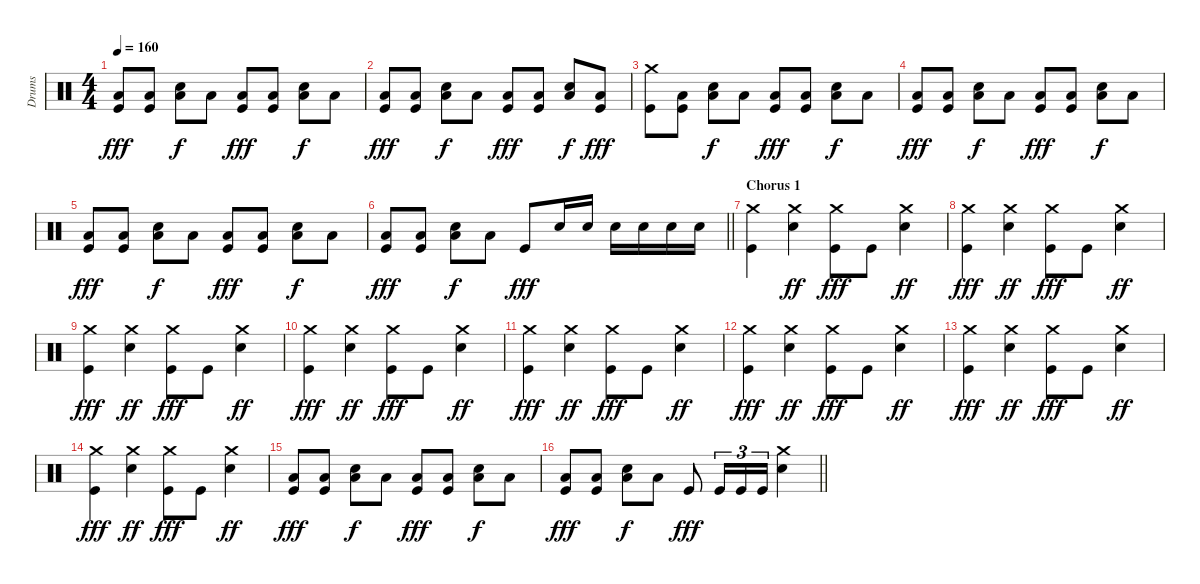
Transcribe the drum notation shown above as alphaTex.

\track ("Drums" "Drums") {instrument percussion}
\staff {score}
\articulation defaults
\ts (4 4)
\tempo 160
\clef neutral
\ks c
("Low Floor Tom (hit)" "Kick (hit)").8{dy fff} ("Low Floor Tom (hit)" "Kick (hit)").8 ("Low Floor Tom (hit)" "Electric Snare (hit)").8{dy f} "Low Floor Tom (hit)".8 ("Low Floor Tom (hit)" "Kick (hit)").8{dy fff} ("Low Floor Tom (hit)" "Kick (hit)").8 ("Low Floor Tom (hit)" "Electric Snare (hit)").8{dy f} "Low Floor Tom (hit)".8 |
("Low Floor Tom (hit)" "Kick (hit)").8{dy fff} ("Low Floor Tom (hit)" "Kick (hit)").8 ("Low Floor Tom (hit)" "Electric Snare (hit)").8{dy f} "Low Floor Tom (hit)".8 ("Low Floor Tom (hit)" "Kick (hit)").8{dy fff} ("Low Floor Tom (hit)" "Kick (hit)").8 ("Low Floor Tom (hit)" "Electric Snare (hit)").8{dy f} ("Low Floor Tom (hit)" "Kick (hit)").8{dy fff} |
("Crash medium (hit)" "Kick (hit)").8 ("Low Floor Tom (hit)" "Kick (hit)").8 ("Low Floor Tom (hit)" "Electric Snare (hit)").8{dy f} "Low Floor Tom (hit)".8 ("Low Floor Tom (hit)" "Kick (hit)").8{dy fff} ("Low Floor Tom (hit)" "Kick (hit)").8 ("Low Floor Tom (hit)" "Electric Snare (hit)").8{dy f} "Low Floor Tom (hit)".8 |
("Low Floor Tom (hit)" "Kick (hit)").8{dy fff} ("Low Floor Tom (hit)" "Kick (hit)").8 ("Low Floor Tom (hit)" "Electric Snare (hit)").8{dy f} "Low Floor Tom (hit)".8 ("Low Floor Tom (hit)" "Kick (hit)").8{dy fff} ("Low Floor Tom (hit)" "Kick (hit)").8 ("Low Floor Tom (hit)" "Electric Snare (hit)").8{dy f} "Low Floor Tom (hit)".8 |
("Low Floor Tom (hit)" "Kick (hit)").8{dy fff} ("Low Floor Tom (hit)" "Kick (hit)").8 ("Low Floor Tom (hit)" "Electric Snare (hit)").8{dy f} "Low Floor Tom (hit)".8 ("Low Floor Tom (hit)" "Kick (hit)").8{dy fff} ("Low Floor Tom (hit)" "Kick (hit)").8 ("Low Floor Tom (hit)" "Electric Snare (hit)").8{dy f} "Low Floor Tom (hit)".8 |
\barLineRight lightlight
("Low Floor Tom (hit)" "Kick (hit)").8{dy fff} ("Low Floor Tom (hit)" "Kick (hit)").8 ("Low Floor Tom (hit)" "Electric Snare (hit)").8{dy f} "Low Floor Tom (hit)".8 "Kick (hit)".8{dy fff} "Electric Snare (hit)".16 "Electric Snare (hit)".16 "Electric Snare (hit)".16 "Electric Snare (hit)".16 "Electric Snare (hit)".16 "Electric Snare (hit)".16 |
\section ("" "Chorus 1")
("Crash medium (hit)" "Kick (hit)").4 ("Crash medium (hit)" "Snare (hit) 2").4{dy ff} ("Crash medium (hit)" "Kick (hit)").8{dy fff} "Kick (hit)".8 ("Crash medium (hit)" "Snare (hit) 2").4{dy ff} |
("Crash medium (hit)" "Kick (hit)").4{dy fff} ("Crash medium (hit)" "Snare (hit) 2").4{dy ff} ("Crash medium (hit)" "Kick (hit)").8{dy fff} "Kick (hit)".8 ("Crash medium (hit)" "Snare (hit) 2").4{dy ff} |
("Crash medium (hit)" "Kick (hit)").4{dy fff} ("Crash medium (hit)" "Snare (hit) 2").4{dy ff} ("Crash medium (hit)" "Kick (hit)").8{dy fff} "Kick (hit)".8 ("Crash medium (hit)" "Snare (hit) 2").4{dy ff} |
("Crash medium (hit)" "Kick (hit)").4{dy fff} ("Crash medium (hit)" "Snare (hit) 2").4{dy ff} ("Crash medium (hit)" "Kick (hit)").8{dy fff} "Kick (hit)".8 ("Crash medium (hit)" "Snare (hit) 2").4{dy ff} |
("Crash medium (hit)" "Kick (hit)").4{dy fff} ("Crash medium (hit)" "Snare (hit) 2").4{dy ff} ("Crash medium (hit)" "Kick (hit)").8{dy fff} "Kick (hit)".8 ("Crash medium (hit)" "Snare (hit) 2").4{dy ff} |
("Crash medium (hit)" "Kick (hit)").4{dy fff} ("Crash medium (hit)" "Snare (hit) 2").4{dy ff} ("Crash medium (hit)" "Kick (hit)").8{dy fff} "Kick (hit)".8 ("Crash medium (hit)" "Snare (hit) 2").4{dy ff} |
("Crash medium (hit)" "Kick (hit)").4{dy fff} ("Crash medium (hit)" "Snare (hit) 2").4{dy ff} ("Crash medium (hit)" "Kick (hit)").8{dy fff} "Kick (hit)".8 ("Crash medium (hit)" "Snare (hit) 2").4{dy ff} |
("Crash medium (hit)" "Kick (hit)").4{dy fff} ("Crash medium (hit)" "Snare (hit) 2").4{dy ff} ("Crash medium (hit)" "Kick (hit)").8{dy fff} "Kick (hit)".8 ("Crash medium (hit)" "Snare (hit) 2").4{dy ff} |
("Low Floor Tom (hit)" "Kick (hit)").8{dy fff} ("Low Floor Tom (hit)" "Kick (hit)").8 ("Low Floor Tom (hit)" "Electric Snare (hit)").8{dy f} "Low Floor Tom (hit)".8 ("Low Floor Tom (hit)" "Kick (hit)").8{dy fff} ("Low Floor Tom (hit)" "Kick (hit)").8 ("Low Floor Tom (hit)" "Electric Snare (hit)").8{dy f} "Low Floor Tom (hit)".8 |
\barLineRight lightlight
("Low Floor Tom (hit)" "Kick (hit)").8{dy fff} ("Low Floor Tom (hit)" "Kick (hit)").8 ("Low Floor Tom (hit)" "Electric Snare (hit)").8{dy f} "Low Floor Tom (hit)".8 "Kick (hit)".8{dy fff} "Kick (hit)".16{tu (3 2)} "Kick (hit)".16{tu (3 2)} "Kick (hit)".16{tu (3 2)} ("Crash medium (hit)" "Electric Snare (hit)").4
